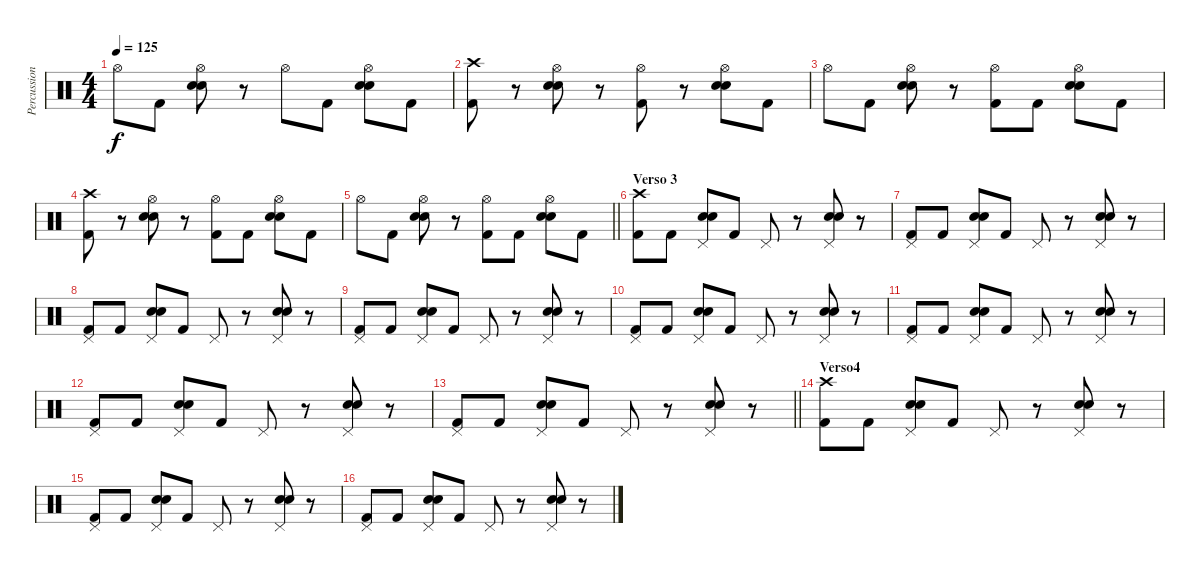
\track ("Percussion" "Percussion") {instrument percussion}
\staff {score}
\articulation defaults
\ts (4 4)
\tempo 125
\clef neutral
\ks c "Hi-Hat (open)".8{dy f} "Kick (hit) 2".8
("Hi-Hat (open)" "Snare (hit) 2" "Electric Snare (hit)").8 r.8 "Hi-Hat (open)".8 "Kick (hit) 2".8 ("Hi-Hat (open)" "Snare (hit) 2" "Electric Snare (hit)").8 "Kick (hit) 2".8 |
("Crash high (hit)" "Kick (hit) 2").8 r.8 ("Hi-Hat (open)" "Snare (hit) 2" "Electric Snare (hit)").8 r.8 ("Hi-Hat (open)" "Kick (hit) 2").8 r.8 ("Hi-Hat (open)" "Snare (hit) 2" "Electric Snare (hit)").8 "Kick (hit) 2".8 |
"Hi-Hat (open)".8 "Kick (hit) 2".8 ("Hi-Hat (open)" "Snare (hit) 2" "Electric Snare (hit)").8 r.8 ("Hi-Hat (open)" "Kick (hit) 2").8 "Kick (hit) 2".8 ("Hi-Hat (open)" "Snare (hit) 2" "Electric Snare (hit)").8 "Kick (hit) 2".8 |
("Crash high (hit)" "Kick (hit) 2").8 r.8 ("Hi-Hat (open)" "Snare (hit) 2" "Electric Snare (hit)").8 r.8 ("Hi-Hat (open)" "Kick (hit) 2").8 "Kick (hit) 2".8 ("Hi-Hat (open)" "Snare (hit) 2" "Electric Snare (hit)").8 "Kick (hit) 2".8 |
\barLineRight lightlight "Hi-Hat (open)".8 "Kick (hit) 2".8
("Hi-Hat (open)" "Snare (hit) 2" "Electric Snare (hit)").8 r.8 ("Hi-Hat (open)" "Kick (hit) 2").8 "Kick (hit) 2".8 ("Hi-Hat (open)" "Snare (hit) 2" "Electric Snare (hit)").8 "Kick (hit) 2".8 |
\section ("" "Verso 3")
("Crash high (hit)" "Kick (hit) 2").8 "Kick (hit) 2".8 ("Pedal Hi-Hat (hit)" "Snare (hit) 2" "Electric Snare (hit)").8 "Kick (hit) 2".8 "Pedal Hi-Hat (hit)".8 r.8 ("Pedal Hi-Hat (hit)" "Snare (hit) 2" "Electric Snare (hit)").8 r.8 |
("Pedal Hi-Hat (hit)" "Kick (hit) 2").8 "Kick (hit) 2".8 ("Pedal Hi-Hat (hit)" "Snare (hit) 2" "Electric Snare (hit)").8 "Kick (hit) 2".8 "Pedal Hi-Hat (hit)".8 r.8 ("Pedal Hi-Hat (hit)" "Snare (hit) 2" "Electric Snare (hit)").8 r.8 |
("Pedal Hi-Hat (hit)" "Kick (hit) 2").8 "Kick (hit) 2".8 ("Pedal Hi-Hat (hit)" "Snare (hit) 2" "Electric Snare (hit)").8 "Kick (hit) 2".8 "Pedal Hi-Hat (hit)".8 r.8 ("Pedal Hi-Hat (hit)" "Snare (hit) 2" "Electric Snare (hit)").8 r.8 |
("Pedal Hi-Hat (hit)" "Kick (hit) 2").8 "Kick (hit) 2".8 ("Pedal Hi-Hat (hit)" "Snare (hit) 2" "Electric Snare (hit)").8 "Kick (hit) 2".8 "Pedal Hi-Hat (hit)".8 r.8 ("Pedal Hi-Hat (hit)" "Snare (hit) 2" "Electric Snare (hit)").8 r.8 |
("Pedal Hi-Hat (hit)" "Kick (hit) 2").8 "Kick (hit) 2".8 ("Pedal Hi-Hat (hit)" "Snare (hit) 2" "Electric Snare (hit)").8 "Kick (hit) 2".8 "Pedal Hi-Hat (hit)".8 r.8 ("Pedal Hi-Hat (hit)" "Snare (hit) 2" "Electric Snare (hit)").8 r.8 |
("Pedal Hi-Hat (hit)" "Kick (hit) 2").8 "Kick (hit) 2".8 ("Pedal Hi-Hat (hit)" "Snare (hit) 2" "Electric Snare (hit)").8 "Kick (hit) 2".8 "Pedal Hi-Hat (hit)".8 r.8 ("Pedal Hi-Hat (hit)" "Snare (hit) 2" "Electric Snare (hit)").8 r.8 |
("Pedal Hi-Hat (hit)" "Kick (hit) 2").8 "Kick (hit) 2".8 ("Pedal Hi-Hat (hit)" "Snare (hit) 2" "Electric Snare (hit)").8 "Kick (hit) 2".8 "Pedal Hi-Hat (hit)".8 r.8 ("Pedal Hi-Hat (hit)" "Snare (hit) 2" "Electric Snare (hit)").8 r.8 |
\barLineRight lightlight
("Pedal Hi-Hat (hit)" "Kick (hit) 2").8 "Kick (hit) 2".8 ("Pedal Hi-Hat (hit)" "Snare (hit) 2" "Electric Snare (hit)").8 "Kick (hit) 2".8 "Pedal Hi-Hat (hit)".8 r.8 ("Pedal Hi-Hat (hit)" "Snare (hit) 2" "Electric Snare (hit)").8 r.8 |
\section ("" "Verso4")
("Crash high (hit)" "Kick (hit) 2").8 "Kick (hit) 2".8 ("Pedal Hi-Hat (hit)" "Snare (hit) 2" "Electric Snare (hit)").8 "Kick (hit) 2".8 "Pedal Hi-Hat (hit)".8 r.8 ("Pedal Hi-Hat (hit)" "Snare (hit) 2" "Electric Snare (hit)").8 r.8 |
("Pedal Hi-Hat (hit)" "Kick (hit) 2").8 "Kick (hit) 2".8 ("Pedal Hi-Hat (hit)" "Snare (hit) 2" "Electric Snare (hit)").8 "Kick (hit) 2".8 "Pedal Hi-Hat (hit)".8 r.8 ("Pedal Hi-Hat (hit)" "Snare (hit) 2" "Electric Snare (hit)").8 r.8 |
("Pedal Hi-Hat (hit)" "Kick (hit) 2").8 "Kick (hit) 2".8 ("Pedal Hi-Hat (hit)" "Snare (hit) 2" "Electric Snare (hit)").8 "Kick (hit) 2".8 "Pedal Hi-Hat (hit)".8 r.8 ("Pedal Hi-Hat (hit)" "Snare (hit) 2" "Electric Snare (hit)").8 r.8
